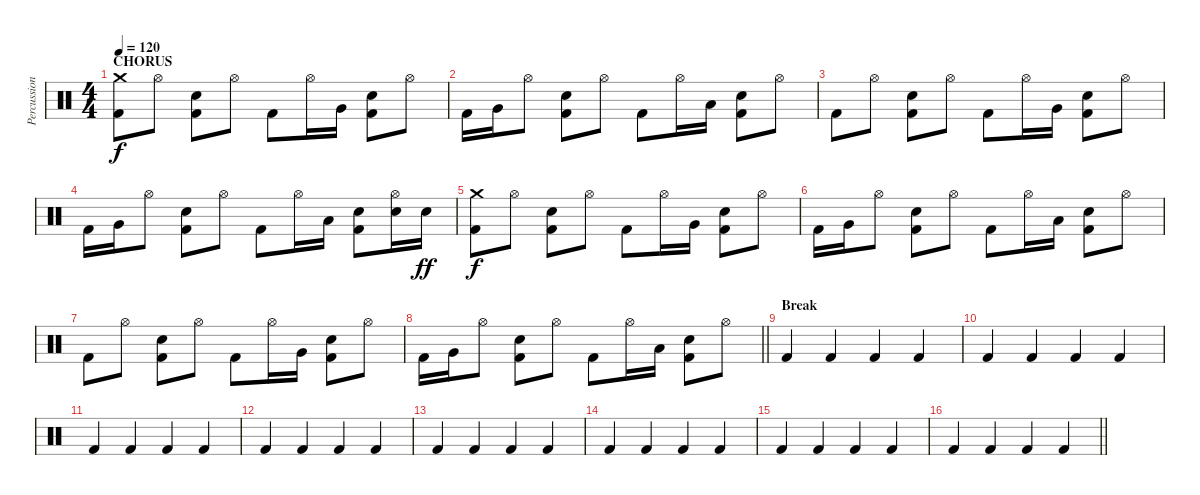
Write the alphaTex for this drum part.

\track ("Percussion" "Percussion") {instrument percussion}
\staff {score}
\articulation defaults
\ts (4 4)
\section ("" "CHORUS")
\tempo 120
\clef neutral
\ks c
("Crash medium (hit)" "Kick (hit) 2").8{dy f} "Hi-Hat (open)".8 ("Electric Snare (hit)" "Kick (hit) 2").8 "Hi-Hat (open)".8 "Kick (hit) 2".8 "Hi-Hat (open)".16 "Very Low Tom (hit)".16 ("Electric Snare (hit)" "Kick (hit) 2").8 "Hi-Hat (open)".8 |
"Kick (hit) 2".16 "Very Low Tom (hit)".16 "Hi-Hat (open)".8 ("Electric Snare (hit)" "Kick (hit) 2").8 "Hi-Hat (open)".8 "Kick (hit) 2".8 "Hi-Hat (open)".16 "Low Tom (hit)".16 ("Electric Snare (hit)" "Kick (hit) 2").8 "Hi-Hat (open)".8 |
"Kick (hit) 2".8 "Hi-Hat (open)".8 ("Electric Snare (hit)" "Kick (hit) 2").8 "Hi-Hat (open)".8 "Kick (hit) 2".8 "Hi-Hat (open)".16 "Very Low Tom (hit)".16 ("Electric Snare (hit)" "Kick (hit) 2").8 "Hi-Hat (open)".8 |
"Kick (hit) 2".16 "Very Low Tom (hit)".16 "Hi-Hat (open)".8 ("Electric Snare (hit)" "Kick (hit) 2").8 "Hi-Hat (open)".8 "Kick (hit) 2".8 "Hi-Hat (open)".16 "Low Tom (hit)".16 ("Electric Snare (hit)" "Kick (hit) 2").8 ("Hi-Hat (open)" "Electric Snare (hit)").16 "Electric Snare (hit)".16{dy ff} |
("Crash medium (hit)" "Kick (hit) 2").8{dy f} "Hi-Hat (open)".8 ("Electric Snare (hit)" "Kick (hit) 2").8 "Hi-Hat (open)".8 "Kick (hit) 2".8 "Hi-Hat (open)".16 "Very Low Tom (hit)".16 ("Electric Snare (hit)" "Kick (hit) 2").8 "Hi-Hat (open)".8 |
"Kick (hit) 2".16 "Very Low Tom (hit)".16 "Hi-Hat (open)".8 ("Electric Snare (hit)" "Kick (hit) 2").8 "Hi-Hat (open)".8 "Kick (hit) 2".8 "Hi-Hat (open)".16 "Low Tom (hit)".16 ("Electric Snare (hit)" "Kick (hit) 2").8 "Hi-Hat (open)".8 |
"Kick (hit) 2".8 "Hi-Hat (open)".8 ("Electric Snare (hit)" "Kick (hit) 2").8 "Hi-Hat (open)".8 "Kick (hit) 2".8 "Hi-Hat (open)".16 "Very Low Tom (hit)".16 ("Electric Snare (hit)" "Kick (hit) 2").8 "Hi-Hat (open)".8 |
\barLineRight lightlight "Kick (hit) 2".16 "Very Low Tom (hit)".16 "Hi-Hat (open)".8
("Electric Snare (hit)" "Kick (hit) 2").8 "Hi-Hat (open)".8 "Kick (hit) 2".8 "Hi-Hat (open)".16 "Low Tom (hit)".16 ("Electric Snare (hit)" "Kick (hit) 2").8 "Hi-Hat (open)".8 |
\section ("" "Break")
"Kick (hit) 2".4 "Kick (hit) 2".4 "Kick (hit) 2".4 "Kick (hit) 2".4 |
"Kick (hit) 2".4 "Kick (hit) 2".4 "Kick (hit) 2".4 "Kick (hit) 2".4 |
"Kick (hit) 2".4 "Kick (hit) 2".4 "Kick (hit) 2".4 "Kick (hit) 2".4 |
"Kick (hit) 2".4 "Kick (hit) 2".4 "Kick (hit) 2".4 "Kick (hit) 2".4 |
"Kick (hit) 2".4 "Kick (hit) 2".4 "Kick (hit) 2".4 "Kick (hit) 2".4 |
"Kick (hit) 2".4 "Kick (hit) 2".4 "Kick (hit) 2".4 "Kick (hit) 2".4 |
"Kick (hit) 2".4 "Kick (hit) 2".4 "Kick (hit) 2".4 "Kick (hit) 2".4 |
\barLineRight lightlight "Kick (hit) 2".4 "Kick (hit) 2".4 "Kick (hit) 2".4 "Kick (hit) 2".4
